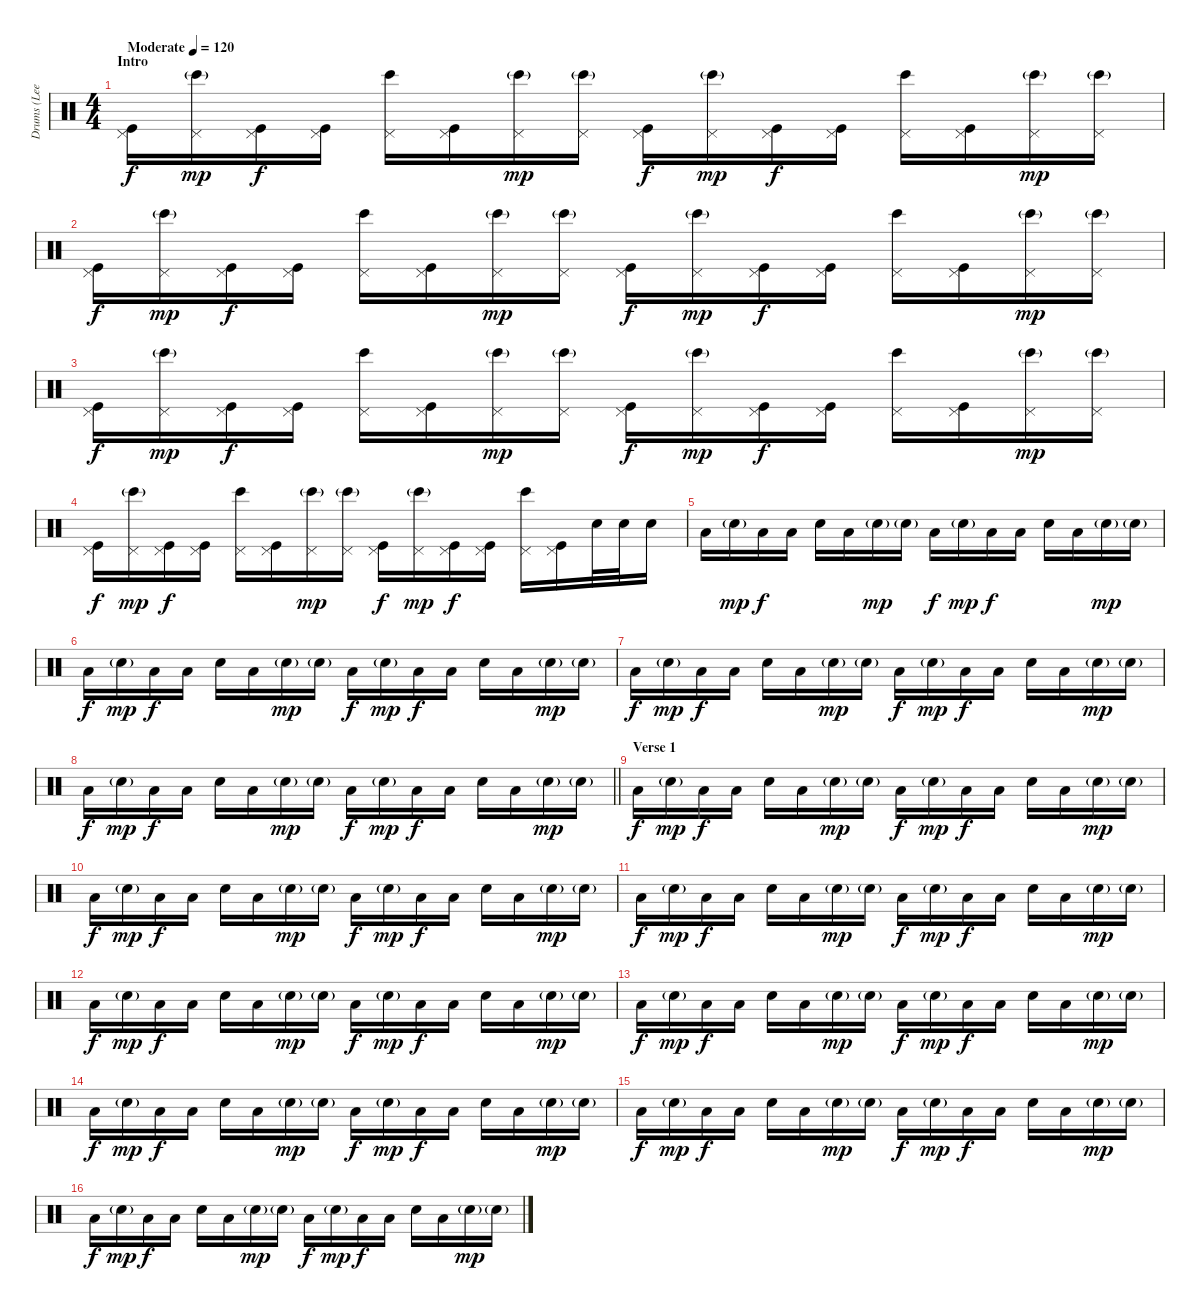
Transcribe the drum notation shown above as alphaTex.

\track ("Drums (Lee)" "Drums (Lee") {instrument percussion}
\staff {score}
\articulation defaults
\ts (4 4)
\section ("" "Intro")
\tempo (120 "Moderate")
\clef neutral
\ks c
("Pedal Hi-Hat (hit)" "Kick (hit)").16{dy f} ("Pedal Hi-Hat (hit)" "Bongo High (hit)"{g}).16{dy mp} ("Pedal Hi-Hat (hit)" "Kick (hit)").16{dy f} ("Pedal Hi-Hat (hit)" "Kick (hit)").16 ("Pedal Hi-Hat (hit)" "Bongo High (hit)").16 ("Pedal Hi-Hat (hit)" "Kick (hit)").16 ("Pedal Hi-Hat (hit)" "Bongo High (hit)"{g}).16{dy mp} ("Pedal Hi-Hat (hit)" "Bongo High (hit)"{g}).16 ("Pedal Hi-Hat (hit)" "Kick (hit)").16{dy f} ("Pedal Hi-Hat (hit)" "Bongo High (hit)"{g}).16{dy mp} ("Pedal Hi-Hat (hit)" "Kick (hit)").16{dy f} ("Pedal Hi-Hat (hit)" "Kick (hit)").16 ("Pedal Hi-Hat (hit)" "Bongo High (hit)").16 ("Pedal Hi-Hat (hit)" "Kick (hit)").16 ("Pedal Hi-Hat (hit)" "Bongo High (hit)"{g}).16{dy mp} ("Pedal Hi-Hat (hit)" "Bongo High (hit)"{g}).16 |
("Pedal Hi-Hat (hit)" "Kick (hit)").16{dy f} ("Pedal Hi-Hat (hit)" "Bongo High (hit)"{g}).16{dy mp} ("Pedal Hi-Hat (hit)" "Kick (hit)").16{dy f} ("Pedal Hi-Hat (hit)" "Kick (hit)").16 ("Pedal Hi-Hat (hit)" "Bongo High (hit)").16 ("Pedal Hi-Hat (hit)" "Kick (hit)").16 ("Pedal Hi-Hat (hit)" "Bongo High (hit)"{g}).16{dy mp} ("Pedal Hi-Hat (hit)" "Bongo High (hit)"{g}).16 ("Pedal Hi-Hat (hit)" "Kick (hit)").16{dy f} ("Pedal Hi-Hat (hit)" "Bongo High (hit)"{g}).16{dy mp} ("Pedal Hi-Hat (hit)" "Kick (hit)").16{dy f} ("Pedal Hi-Hat (hit)" "Kick (hit)").16 ("Pedal Hi-Hat (hit)" "Bongo High (hit)").16 ("Pedal Hi-Hat (hit)" "Kick (hit)").16 ("Pedal Hi-Hat (hit)" "Bongo High (hit)"{g}).16{dy mp} ("Pedal Hi-Hat (hit)" "Bongo High (hit)"{g}).16 |
("Pedal Hi-Hat (hit)" "Kick (hit)").16{dy f} ("Pedal Hi-Hat (hit)" "Bongo High (hit)"{g}).16{dy mp} ("Pedal Hi-Hat (hit)" "Kick (hit)").16{dy f} ("Pedal Hi-Hat (hit)" "Kick (hit)").16 ("Pedal Hi-Hat (hit)" "Bongo High (hit)").16 ("Pedal Hi-Hat (hit)" "Kick (hit)").16 ("Pedal Hi-Hat (hit)" "Bongo High (hit)"{g}).16{dy mp} ("Pedal Hi-Hat (hit)" "Bongo High (hit)"{g}).16 ("Pedal Hi-Hat (hit)" "Kick (hit)").16{dy f} ("Pedal Hi-Hat (hit)" "Bongo High (hit)"{g}).16{dy mp} ("Pedal Hi-Hat (hit)" "Kick (hit)").16{dy f} ("Pedal Hi-Hat (hit)" "Kick (hit)").16 ("Pedal Hi-Hat (hit)" "Bongo High (hit)").16 ("Pedal Hi-Hat (hit)" "Kick (hit)").16 ("Pedal Hi-Hat (hit)" "Bongo High (hit)"{g}).16{dy mp} ("Pedal Hi-Hat (hit)" "Bongo High (hit)"{g}).16 |
("Pedal Hi-Hat (hit)" "Kick (hit)").16{dy f} ("Pedal Hi-Hat (hit)" "Bongo High (hit)"{g}).16{dy mp} ("Pedal Hi-Hat (hit)" "Kick (hit)").16{dy f} ("Pedal Hi-Hat (hit)" "Kick (hit)").16 ("Pedal Hi-Hat (hit)" "Bongo High (hit)").16 ("Pedal Hi-Hat (hit)" "Kick (hit)").16 ("Pedal Hi-Hat (hit)" "Bongo High (hit)"{g}).16{dy mp} ("Pedal Hi-Hat (hit)" "Bongo High (hit)"{g}).16 ("Pedal Hi-Hat (hit)" "Kick (hit)").16{dy f} ("Pedal Hi-Hat (hit)" "Bongo High (hit)"{g}).16{dy mp} ("Pedal Hi-Hat (hit)" "Kick (hit)").16{dy f} ("Pedal Hi-Hat (hit)" "Kick (hit)").16 ("Pedal Hi-Hat (hit)" "Bongo High (hit)").16 ("Pedal Hi-Hat (hit)" "Kick (hit)").16 "Electric Snare (hit)".32 "Electric Snare (hit)".32 "Electric Snare (hit)".16 |
"Low Floor Tom (hit)".16 "Snare (hit) 2"{g}.16{dy mp} "Low Floor Tom (hit)".16{dy f} "Low Floor Tom (hit)".16 "Electric Snare (hit)".16 "Low Floor Tom (hit)".16 "Snare (hit) 2"{g}.16{dy mp} "Snare (hit) 2"{g}.16 "Low Floor Tom (hit)".16{dy f} "Snare (hit) 2"{g}.16{dy mp} "Low Floor Tom (hit)".16{dy f} "Low Floor Tom (hit)".16 "Electric Snare (hit)".16 "Low Floor Tom (hit)".16 "Snare (hit) 2"{g}.16{dy mp} "Snare (hit) 2"{g}.16 |
"Low Floor Tom (hit)".16{dy f} "Snare (hit) 2"{g}.16{dy mp} "Low Floor Tom (hit)".16{dy f} "Low Floor Tom (hit)".16 "Electric Snare (hit)".16 "Low Floor Tom (hit)".16 "Snare (hit) 2"{g}.16{dy mp} "Snare (hit) 2"{g}.16 "Low Floor Tom (hit)".16{dy f} "Snare (hit) 2"{g}.16{dy mp} "Low Floor Tom (hit)".16{dy f} "Low Floor Tom (hit)".16 "Electric Snare (hit)".16 "Low Floor Tom (hit)".16 "Snare (hit) 2"{g}.16{dy mp} "Snare (hit) 2"{g}.16 |
"Low Floor Tom (hit)".16{dy f} "Snare (hit) 2"{g}.16{dy mp} "Low Floor Tom (hit)".16{dy f} "Low Floor Tom (hit)".16 "Electric Snare (hit)".16 "Low Floor Tom (hit)".16 "Snare (hit) 2"{g}.16{dy mp} "Snare (hit) 2"{g}.16 "Low Floor Tom (hit)".16{dy f} "Snare (hit) 2"{g}.16{dy mp} "Low Floor Tom (hit)".16{dy f} "Low Floor Tom (hit)".16 "Electric Snare (hit)".16 "Low Floor Tom (hit)".16 "Snare (hit) 2"{g}.16{dy mp} "Snare (hit) 2"{g}.16 |
\barLineRight lightlight "Low Floor Tom (hit)".16{dy f} "Snare (hit) 2"{g}.16{dy mp} "Low Floor Tom (hit)".16{dy f} "Low Floor Tom (hit)".16 "Electric Snare (hit)".16 "Low Floor Tom (hit)".16 "Snare (hit) 2"{g}.16{dy mp} "Snare (hit) 2"{g}.16 "Low Floor Tom (hit)".16{dy f} "Snare (hit) 2"{g}.16{dy mp} "Low Floor Tom (hit)".16{dy f} "Low Floor Tom (hit)".16 "Electric Snare (hit)".16 "Low Floor Tom (hit)".16 "Snare (hit) 2"{g}.16{dy mp} "Snare (hit) 2"{g}.16
|
\section ("" "Verse 1")
"Low Floor Tom (hit)".16{dy f} "Snare (hit) 2"{g}.16{dy mp} "Low Floor Tom (hit)".16{dy f} "Low Floor Tom (hit)".16 "Electric Snare (hit)".16 "Low Floor Tom (hit)".16 "Snare (hit) 2"{g}.16{dy mp} "Snare (hit) 2"{g}.16 "Low Floor Tom (hit)".16{dy f} "Snare (hit) 2"{g}.16{dy mp} "Low Floor Tom (hit)".16{dy f} "Low Floor Tom (hit)".16 "Electric Snare (hit)".16 "Low Floor Tom (hit)".16 "Snare (hit) 2"{g}.16{dy mp} "Snare (hit) 2"{g}.16 |
"Low Floor Tom (hit)".16{dy f} "Snare (hit) 2"{g}.16{dy mp} "Low Floor Tom (hit)".16{dy f} "Low Floor Tom (hit)".16 "Electric Snare (hit)".16 "Low Floor Tom (hit)".16 "Snare (hit) 2"{g}.16{dy mp} "Snare (hit) 2"{g}.16 "Low Floor Tom (hit)".16{dy f} "Snare (hit) 2"{g}.16{dy mp} "Low Floor Tom (hit)".16{dy f} "Low Floor Tom (hit)".16 "Electric Snare (hit)".16 "Low Floor Tom (hit)".16 "Snare (hit) 2"{g}.16{dy mp} "Snare (hit) 2"{g}.16 |
"Low Floor Tom (hit)".16{dy f} "Snare (hit) 2"{g}.16{dy mp} "Low Floor Tom (hit)".16{dy f} "Low Floor Tom (hit)".16 "Electric Snare (hit)".16 "Low Floor Tom (hit)".16 "Snare (hit) 2"{g}.16{dy mp} "Snare (hit) 2"{g}.16 "Low Floor Tom (hit)".16{dy f} "Snare (hit) 2"{g}.16{dy mp} "Low Floor Tom (hit)".16{dy f} "Low Floor Tom (hit)".16 "Electric Snare (hit)".16 "Low Floor Tom (hit)".16 "Snare (hit) 2"{g}.16{dy mp} "Snare (hit) 2"{g}.16 |
"Low Floor Tom (hit)".16{dy f} "Snare (hit) 2"{g}.16{dy mp} "Low Floor Tom (hit)".16{dy f} "Low Floor Tom (hit)".16 "Electric Snare (hit)".16 "Low Floor Tom (hit)".16 "Snare (hit) 2"{g}.16{dy mp} "Snare (hit) 2"{g}.16 "Low Floor Tom (hit)".16{dy f} "Snare (hit) 2"{g}.16{dy mp} "Low Floor Tom (hit)".16{dy f} "Low Floor Tom (hit)".16 "Electric Snare (hit)".16 "Low Floor Tom (hit)".16 "Snare (hit) 2"{g}.16{dy mp} "Snare (hit) 2"{g}.16 |
"Low Floor Tom (hit)".16{dy f} "Snare (hit) 2"{g}.16{dy mp} "Low Floor Tom (hit)".16{dy f} "Low Floor Tom (hit)".16 "Electric Snare (hit)".16 "Low Floor Tom (hit)".16 "Snare (hit) 2"{g}.16{dy mp} "Snare (hit) 2"{g}.16 "Low Floor Tom (hit)".16{dy f} "Snare (hit) 2"{g}.16{dy mp} "Low Floor Tom (hit)".16{dy f} "Low Floor Tom (hit)".16 "Electric Snare (hit)".16 "Low Floor Tom (hit)".16 "Snare (hit) 2"{g}.16{dy mp} "Snare (hit) 2"{g}.16 |
"Low Floor Tom (hit)".16{dy f} "Snare (hit) 2"{g}.16{dy mp} "Low Floor Tom (hit)".16{dy f} "Low Floor Tom (hit)".16 "Electric Snare (hit)".16 "Low Floor Tom (hit)".16 "Snare (hit) 2"{g}.16{dy mp} "Snare (hit) 2"{g}.16 "Low Floor Tom (hit)".16{dy f} "Snare (hit) 2"{g}.16{dy mp} "Low Floor Tom (hit)".16{dy f} "Low Floor Tom (hit)".16 "Electric Snare (hit)".16 "Low Floor Tom (hit)".16 "Snare (hit) 2"{g}.16{dy mp} "Snare (hit) 2"{g}.16 |
"Low Floor Tom (hit)".16{dy f} "Snare (hit) 2"{g}.16{dy mp} "Low Floor Tom (hit)".16{dy f} "Low Floor Tom (hit)".16 "Electric Snare (hit)".16 "Low Floor Tom (hit)".16 "Snare (hit) 2"{g}.16{dy mp} "Snare (hit) 2"{g}.16 "Low Floor Tom (hit)".16{dy f} "Snare (hit) 2"{g}.16{dy mp} "Low Floor Tom (hit)".16{dy f} "Low Floor Tom (hit)".16 "Electric Snare (hit)".16 "Low Floor Tom (hit)".16 "Snare (hit) 2"{g}.16{dy mp} "Snare (hit) 2"{g}.16 |
"Low Floor Tom (hit)".16{dy f} "Snare (hit) 2"{g}.16{dy mp} "Low Floor Tom (hit)".16{dy f} "Low Floor Tom (hit)".16 "Electric Snare (hit)".16 "Low Floor Tom (hit)".16 "Snare (hit) 2"{g}.16{dy mp} "Snare (hit) 2"{g}.16 "Low Floor Tom (hit)".16{dy f} "Snare (hit) 2"{g}.16{dy mp} "Low Floor Tom (hit)".16{dy f} "Low Floor Tom (hit)".16 "Electric Snare (hit)".16 "Low Floor Tom (hit)".16 "Snare (hit) 2"{g}.16{dy mp} "Snare (hit) 2"{g}.16
